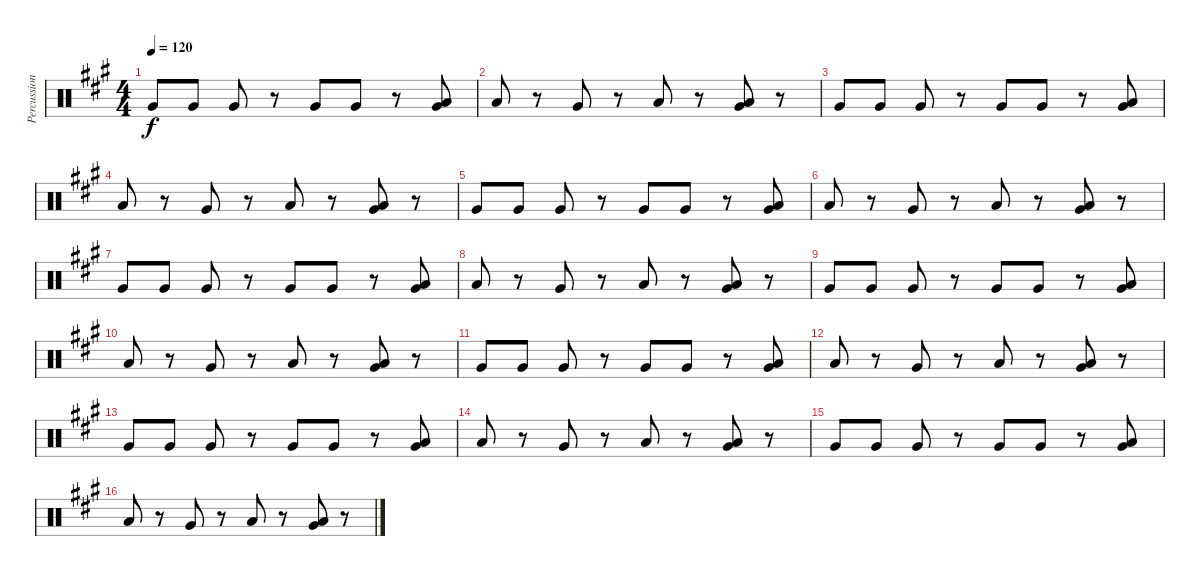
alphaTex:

\track ("Percussion" "Percussion") {instrument percussion}
\staff {score}
\articulation defaults
\ts (4 4)
\tempo 120
\clef neutral
\ks f#minor "Very Low Tom (hit)".8{dy f} "Very Low Tom (hit)".8 "Very Low Tom (hit)".8
r.8 "Very Low Tom (hit)".8 "Very Low Tom (hit)".8 r.8 ("Very Low Tom (hit)" "Low Floor Tom (hit)").8 |
"Low Floor Tom (hit)".8 r.8 "Very Low Tom (hit)".8 r.8 "Low Tom (hit)".8 r.8 ("Low Tom (hit)" "Very Low Tom (hit)").8 r.8 |
"Very Low Tom (hit)".8 "Very Low Tom (hit)".8 "Very Low Tom (hit)".8 r.8 "Very Low Tom (hit)".8 "Very Low Tom (hit)".8 r.8 ("Very Low Tom (hit)" "Low Floor Tom (hit)").8 |
"Low Floor Tom (hit)".8 r.8 "Very Low Tom (hit)".8 r.8 "Low Tom (hit)".8 r.8 ("Low Tom (hit)" "Very Low Tom (hit)").8 r.8 |
"Very Low Tom (hit)".8 "Very Low Tom (hit)".8 "Very Low Tom (hit)".8 r.8 "Very Low Tom (hit)".8 "Very Low Tom (hit)".8 r.8 ("Very Low Tom (hit)" "Low Floor Tom (hit)").8 |
"Low Floor Tom (hit)".8 r.8 "Very Low Tom (hit)".8 r.8 "Low Tom (hit)".8 r.8 ("Low Tom (hit)" "Very Low Tom (hit)").8 r.8 |
"Very Low Tom (hit)".8 "Very Low Tom (hit)".8 "Very Low Tom (hit)".8 r.8 "Very Low Tom (hit)".8 "Very Low Tom (hit)".8 r.8 ("Very Low Tom (hit)" "Low Floor Tom (hit)").8 |
"Low Floor Tom (hit)".8 r.8 "Very Low Tom (hit)".8 r.8 "Low Tom (hit)".8 r.8 ("Low Tom (hit)" "Very Low Tom (hit)").8 r.8 |
"Very Low Tom (hit)".8 "Very Low Tom (hit)".8 "Very Low Tom (hit)".8 r.8 "Very Low Tom (hit)".8 "Very Low Tom (hit)".8 r.8 ("Very Low Tom (hit)" "Low Floor Tom (hit)").8 |
"Low Floor Tom (hit)".8 r.8 "Very Low Tom (hit)".8 r.8 "Low Tom (hit)".8 r.8 ("Low Tom (hit)" "Very Low Tom (hit)").8 r.8 |
"Very Low Tom (hit)".8 "Very Low Tom (hit)".8 "Very Low Tom (hit)".8 r.8 "Very Low Tom (hit)".8 "Very Low Tom (hit)".8 r.8 ("Very Low Tom (hit)" "Low Floor Tom (hit)").8 |
"Low Floor Tom (hit)".8 r.8 "Very Low Tom (hit)".8 r.8 "Low Tom (hit)".8 r.8 ("Low Tom (hit)" "Very Low Tom (hit)").8 r.8 |
"Very Low Tom (hit)".8 "Very Low Tom (hit)".8 "Very Low Tom (hit)".8 r.8 "Very Low Tom (hit)".8 "Very Low Tom (hit)".8 r.8 ("Very Low Tom (hit)" "Low Floor Tom (hit)").8 |
"Low Floor Tom (hit)".8 r.8 "Very Low Tom (hit)".8 r.8 "Low Tom (hit)".8 r.8 ("Low Tom (hit)" "Very Low Tom (hit)").8 r.8 |
"Very Low Tom (hit)".8 "Very Low Tom (hit)".8 "Very Low Tom (hit)".8 r.8 "Very Low Tom (hit)".8 "Very Low Tom (hit)".8 r.8 ("Very Low Tom (hit)" "Low Floor Tom (hit)").8 |
"Low Floor Tom (hit)".8 r.8 "Very Low Tom (hit)".8 r.8 "Low Tom (hit)".8 r.8 ("Low Tom (hit)" "Very Low Tom (hit)").8 r.8
